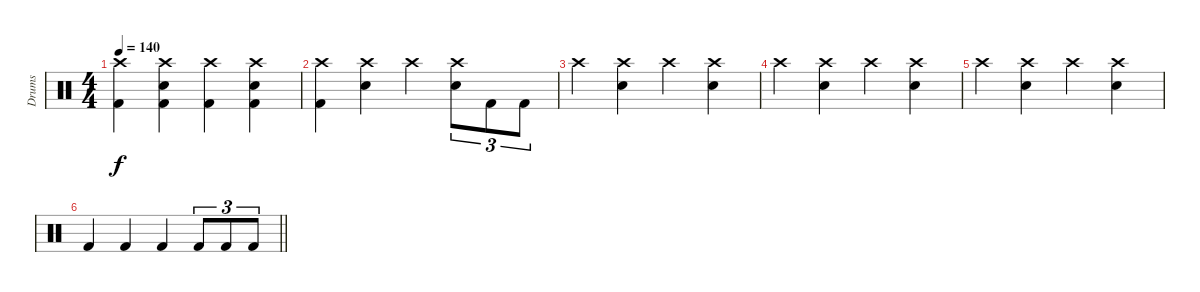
\track ("Drums" "Drums") {instrument percussion}
\staff {score}
\articulation defaults
\ts (4 4)
\tempo 140
\clef neutral
\ks c
("Crash high (hit)" "Kick (hit) 2").4{dy f} ("Electric Snare (hit)" "Crash high (hit)" "Kick (hit) 2").4 ("Crash high (hit)" "Kick (hit) 2").4 ("Electric Snare (hit)" "Crash high (hit)" "Kick (hit) 2").4 |
("Crash high (hit)" "Kick (hit) 2").4 ("Crash high (hit)" "Electric Snare (hit)").4 "Crash high (hit)".4 ("Crash high (hit)" "Electric Snare (hit)").8{tu (3 2)} "Kick (hit) 2".8{tu (3 2)} "Kick (hit) 2".8{tu (3 2)} |
"Crash high (hit)".4 ("Crash high (hit)" "Electric Snare (hit)").4 "Crash high (hit)".4 ("Crash high (hit)" "Electric Snare (hit)").4 |
"Crash high (hit)".4 ("Electric Snare (hit)" "Crash high (hit)").4 "Crash high (hit)".4 ("Electric Snare (hit)" "Crash high (hit)").4 |
"Crash high (hit)".4 ("Electric Snare (hit)" "Crash high (hit)").4 "Crash high (hit)".4 ("Electric Snare (hit)" "Crash high (hit)").4 |
\barLineRight lightlight "Kick (hit) 2".4 "Kick (hit) 2".4 "Kick (hit) 2".4 "Kick (hit) 2".8{tu (3 2)} "Kick (hit) 2".8{tu (3 2)} "Kick (hit) 2".8{tu (3 2)}
